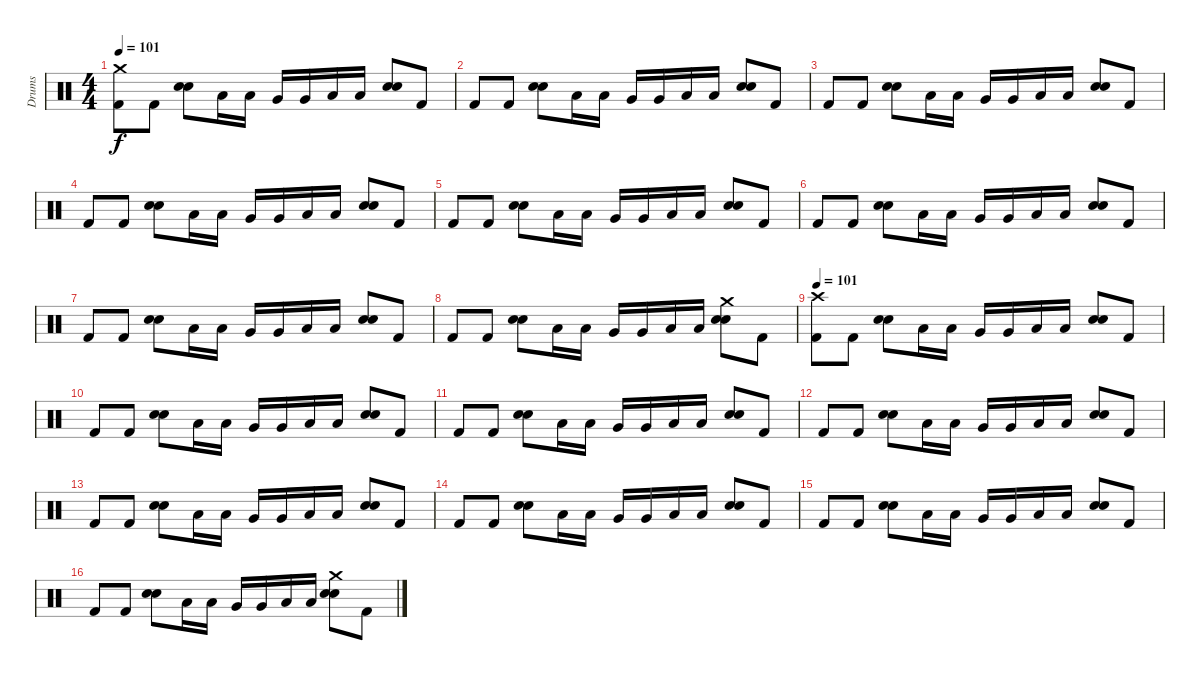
\track ("Drums" "Drums") {instrument percussion}
\staff {score}
\articulation defaults
\ts (4 4)
\tempo 101
\clef neutral
\ks c
("Crash medium (hit)" "Kick (hit) 2").8{dy f} "Kick (hit) 2".8 ("Electric Snare (hit)" "Electric Snare (hit)").8 "Low Tom (hit)".16 "Low Tom (hit)".16 "Very Low Tom (hit)".16 "Very Low Tom (hit)".16 "Low Floor Tom (hit)".16 "Low Floor Tom (hit)".16 ("Electric Snare (hit)" "Electric Snare (hit)").8 "Kick (hit) 2".8 |
"Kick (hit) 2".8 "Kick (hit) 2".8 ("Electric Snare (hit)" "Electric Snare (hit)").8 "Low Tom (hit)".16 "Low Tom (hit)".16 "Very Low Tom (hit)".16 "Very Low Tom (hit)".16 "Low Floor Tom (hit)".16 "Low Floor Tom (hit)".16 ("Electric Snare (hit)" "Electric Snare (hit)").8 "Kick (hit) 2".8 |
"Kick (hit) 2".8 "Kick (hit) 2".8 ("Electric Snare (hit)" "Electric Snare (hit)").8 "Low Tom (hit)".16 "Low Tom (hit)".16 "Very Low Tom (hit)".16 "Very Low Tom (hit)".16 "Low Floor Tom (hit)".16 "Low Floor Tom (hit)".16 ("Electric Snare (hit)" "Electric Snare (hit)").8 "Kick (hit) 2".8 |
"Kick (hit) 2".8 "Kick (hit) 2".8 ("Electric Snare (hit)" "Electric Snare (hit)").8 "Low Tom (hit)".16 "Low Tom (hit)".16 "Very Low Tom (hit)".16 "Very Low Tom (hit)".16 "Low Floor Tom (hit)".16 "Low Floor Tom (hit)".16 ("Electric Snare (hit)" "Electric Snare (hit)").8 "Kick (hit) 2".8 |
"Kick (hit) 2".8 "Kick (hit) 2".8 ("Electric Snare (hit)" "Electric Snare (hit)").8 "Low Tom (hit)".16 "Low Tom (hit)".16 "Very Low Tom (hit)".16 "Very Low Tom (hit)".16 "Low Floor Tom (hit)".16 "Low Floor Tom (hit)".16 ("Electric Snare (hit)" "Electric Snare (hit)").8 "Kick (hit) 2".8 |
"Kick (hit) 2".8 "Kick (hit) 2".8 ("Electric Snare (hit)" "Electric Snare (hit)").8 "Low Tom (hit)".16 "Low Tom (hit)".16 "Very Low Tom (hit)".16 "Very Low Tom (hit)".16 "Low Floor Tom (hit)".16 "Low Floor Tom (hit)".16 ("Electric Snare (hit)" "Electric Snare (hit)").8 "Kick (hit) 2".8 |
"Kick (hit) 2".8 "Kick (hit) 2".8 ("Electric Snare (hit)" "Electric Snare (hit)").8 "Low Tom (hit)".16 "Low Tom (hit)".16 "Very Low Tom (hit)".16 "Very Low Tom (hit)".16 "Low Floor Tom (hit)".16 "Low Floor Tom (hit)".16 ("Electric Snare (hit)" "Electric Snare (hit)").8 "Kick (hit) 2".8 |
"Kick (hit) 2".8 "Kick (hit) 2".8 ("Electric Snare (hit)" "Electric Snare (hit)").8 "Low Tom (hit)".16 "Low Tom (hit)".16 "Very Low Tom (hit)".16 "Very Low Tom (hit)".16 "Low Floor Tom (hit)".16 "Low Floor Tom (hit)".16 ("Crash medium (hit)" "Electric Snare (hit)" "Electric Snare (hit)").8 "Kick (hit) 2".8 |
\tempo 101
("Crash high (hit)" "Kick (hit) 2").8 "Kick (hit) 2".8 ("Electric Snare (hit)" "Electric Snare (hit)").8 "Low Tom (hit)".16 "Low Tom (hit)".16 "Very Low Tom (hit)".16 "Very Low Tom (hit)".16 "Low Floor Tom (hit)".16 "Low Floor Tom (hit)".16 ("Electric Snare (hit)" "Electric Snare (hit)").8 "Kick (hit) 2".8 |
"Kick (hit) 2".8 "Kick (hit) 2".8 ("Electric Snare (hit)" "Electric Snare (hit)").8 "Low Tom (hit)".16 "Low Tom (hit)".16 "Very Low Tom (hit)".16 "Very Low Tom (hit)".16 "Low Floor Tom (hit)".16 "Low Floor Tom (hit)".16 ("Electric Snare (hit)" "Electric Snare (hit)").8 "Kick (hit) 2".8 |
"Kick (hit) 2".8 "Kick (hit) 2".8 ("Electric Snare (hit)" "Electric Snare (hit)").8 "Low Tom (hit)".16 "Low Tom (hit)".16 "Very Low Tom (hit)".16 "Very Low Tom (hit)".16 "Low Floor Tom (hit)".16 "Low Floor Tom (hit)".16 ("Electric Snare (hit)" "Electric Snare (hit)").8 "Kick (hit) 2".8 |
"Kick (hit) 2".8 "Kick (hit) 2".8 ("Electric Snare (hit)" "Electric Snare (hit)").8 "Low Tom (hit)".16 "Low Tom (hit)".16 "Very Low Tom (hit)".16 "Very Low Tom (hit)".16 "Low Floor Tom (hit)".16 "Low Floor Tom (hit)".16 ("Electric Snare (hit)" "Electric Snare (hit)").8 "Kick (hit) 2".8 |
"Kick (hit) 2".8 "Kick (hit) 2".8 ("Electric Snare (hit)" "Electric Snare (hit)").8 "Low Tom (hit)".16 "Low Tom (hit)".16 "Very Low Tom (hit)".16 "Very Low Tom (hit)".16 "Low Floor Tom (hit)".16 "Low Floor Tom (hit)".16 ("Electric Snare (hit)" "Electric Snare (hit)").8 "Kick (hit) 2".8 |
"Kick (hit) 2".8 "Kick (hit) 2".8 ("Electric Snare (hit)" "Electric Snare (hit)").8 "Low Tom (hit)".16 "Low Tom (hit)".16 "Very Low Tom (hit)".16 "Very Low Tom (hit)".16 "Low Floor Tom (hit)".16 "Low Floor Tom (hit)".16 ("Electric Snare (hit)" "Electric Snare (hit)").8 "Kick (hit) 2".8 |
"Kick (hit) 2".8 "Kick (hit) 2".8 ("Electric Snare (hit)" "Electric Snare (hit)").8 "Low Tom (hit)".16 "Low Tom (hit)".16 "Very Low Tom (hit)".16 "Very Low Tom (hit)".16 "Low Floor Tom (hit)".16 "Low Floor Tom (hit)".16 ("Electric Snare (hit)" "Electric Snare (hit)").8 "Kick (hit) 2".8 |
"Kick (hit) 2".8 "Kick (hit) 2".8 ("Electric Snare (hit)" "Electric Snare (hit)").8 "Low Tom (hit)".16 "Low Tom (hit)".16 "Very Low Tom (hit)".16 "Very Low Tom (hit)".16 "Low Floor Tom (hit)".16 "Low Floor Tom (hit)".16 ("Crash medium (hit)" "Electric Snare (hit)" "Electric Snare (hit)").8 "Kick (hit) 2".8
